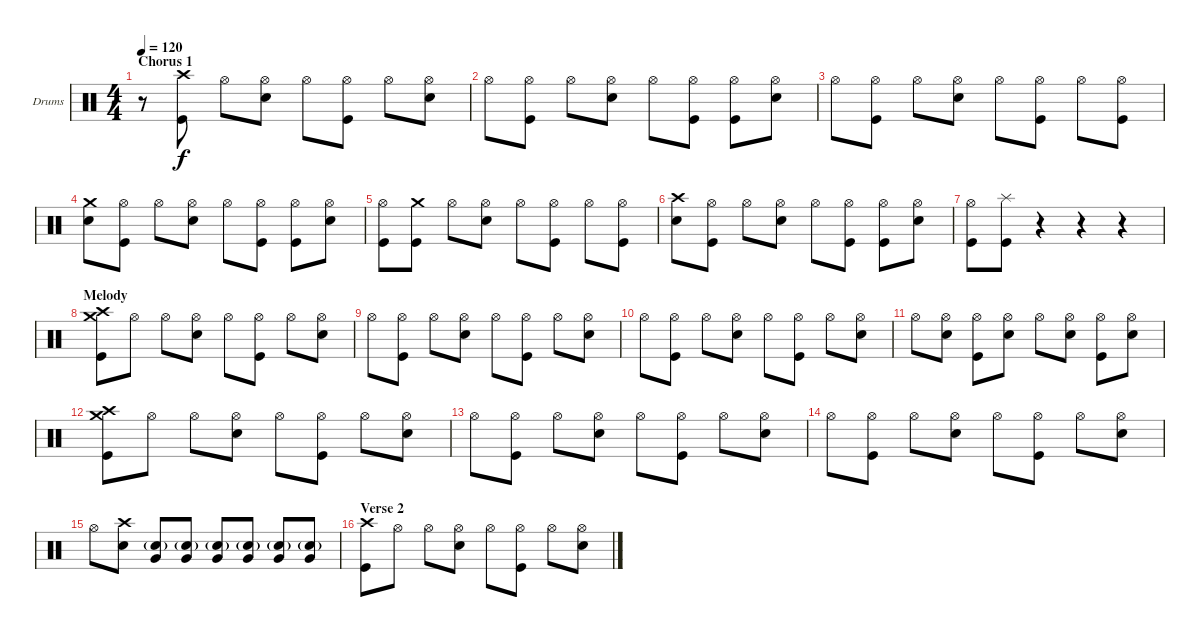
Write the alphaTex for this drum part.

\bracketExtendMode groupsimilarinstruments
\firstSystemTrackNameOrientation horizontal
\otherSystemsTrackNameOrientation horizontal
\track ("Drumkit" "Drums") {instrument percussion}
\staff {score}
\articulation defaults
\ts (4 4)
\section ("" "Chorus 1")
\tempo 120
\clef neutral
\ks c
r.8{dy f} ("Crash high (hit)" "Kick (hit)").8 "Hi-Hat (open)".8 ("Hi-Hat (open)" "Snare (hit) 2").8 "Hi-Hat (open)".8 ("Hi-Hat (open)" "Kick (hit)").8 "Hi-Hat (open)".8 ("Hi-Hat (open)" "Snare (hit) 2").8 |
"Hi-Hat (open)".8 ("Hi-Hat (open)" "Kick (hit)").8 "Hi-Hat (open)".8 ("Hi-Hat (open)" "Snare (hit) 2").8 "Hi-Hat (open)".8 ("Hi-Hat (open)" "Kick (hit)").8 ("Hi-Hat (open)" "Kick (hit)").8 ("Hi-Hat (open)" "Snare (hit) 2").8 |
"Hi-Hat (open)".8 ("Hi-Hat (open)" "Kick (hit)").8 "Hi-Hat (open)".8 ("Hi-Hat (open)" "Snare (hit) 2").8 "Hi-Hat (open)".8 ("Hi-Hat (open)" "Kick (hit)").8 "Hi-Hat (open)".8 ("Hi-Hat (open)" "Kick (hit)").8 |
("Crash medium (hit)" "Snare (hit) 2").8 ("Hi-Hat (open)" "Kick (hit)").8 "Hi-Hat (open)".8 ("Hi-Hat (open)" "Snare (hit) 2").8 "Hi-Hat (open)".8 ("Hi-Hat (open)" "Kick (hit)").8 ("Hi-Hat (open)" "Kick (hit)").8 ("Hi-Hat (open)" "Snare (hit) 2").8 |
("Hi-Hat (open)" "Kick (hit)").8 ("Crash medium (hit)" "Kick (hit)").8 "Hi-Hat (open)".8 ("Hi-Hat (open)" "Snare (hit) 2").8 "Hi-Hat (open)".8 ("Hi-Hat (open)" "Kick (hit)").8 "Hi-Hat (open)".8 ("Hi-Hat (open)" "Kick (hit)").8 |
("Crash high (hit)" "Snare (hit) 2").8 ("Hi-Hat (open)" "Kick (hit)").8 "Hi-Hat (open)".8 ("Hi-Hat (open)" "Snare (hit) 2").8 "Hi-Hat (open)".8 ("Hi-Hat (open)" "Kick (hit)").8 ("Hi-Hat (open)" "Kick (hit)").8 ("Hi-Hat (open)" "Snare (hit) 2").8 |
("Hi-Hat (open)" "Kick (hit)").8 ("Splash (hit)" "Kick (hit)").8 r.4 r.4 r.4 |
\section ("" "Melody")
("Crash high (hit)" "Crash medium (hit)" "Kick (hit)").8 "Hi-Hat (open)".8 "Hi-Hat (open)".8 ("Hi-Hat (open)" "Snare (hit) 2").8 "Hi-Hat (open)".8 ("Hi-Hat (open)" "Kick (hit)").8 "Hi-Hat (open)".8 ("Hi-Hat (open)" "Snare (hit) 2").8 |
"Hi-Hat (open)".8 ("Hi-Hat (open)" "Kick (hit)").8 "Hi-Hat (open)".8 ("Hi-Hat (open)" "Snare (hit) 2").8 "Hi-Hat (open)".8 ("Hi-Hat (open)" "Kick (hit)").8 "Hi-Hat (open)".8 ("Hi-Hat (open)" "Snare (hit) 2").8 |
"Hi-Hat (open)".8 ("Hi-Hat (open)" "Kick (hit)").8 "Hi-Hat (open)".8 ("Hi-Hat (open)" "Snare (hit) 2").8 "Hi-Hat (open)".8 ("Hi-Hat (open)" "Kick (hit)").8 "Hi-Hat (open)".8 ("Hi-Hat (open)" "Snare (hit) 2").8 |
"Hi-Hat (open)".8 ("Hi-Hat (open)" "Snare (hit) 2").8 ("Hi-Hat (open)" "Kick (hit)").8 ("Hi-Hat (open)" "Snare (hit) 2").8 "Hi-Hat (open)".8 ("Hi-Hat (open)" "Snare (hit) 2").8 ("Hi-Hat (open)" "Kick (hit)").8 ("Hi-Hat (open)" "Snare (hit) 2").8 |
("Crash high (hit)" "Crash medium (hit)" "Kick (hit)").8 "Hi-Hat (open)".8 "Hi-Hat (open)".8 ("Hi-Hat (open)" "Snare (hit) 2").8 "Hi-Hat (open)".8 ("Hi-Hat (open)" "Kick (hit)").8 "Hi-Hat (open)".8 ("Hi-Hat (open)" "Snare (hit) 2").8 |
"Hi-Hat (open)".8 ("Hi-Hat (open)" "Kick (hit)").8 "Hi-Hat (open)".8 ("Hi-Hat (open)" "Snare (hit) 2").8 "Hi-Hat (open)".8 ("Hi-Hat (open)" "Kick (hit)").8 "Hi-Hat (open)".8 ("Hi-Hat (open)" "Snare (hit) 2").8 |
"Hi-Hat (open)".8 ("Hi-Hat (open)" "Kick (hit)").8 "Hi-Hat (open)".8 ("Hi-Hat (open)" "Snare (hit) 2").8 "Hi-Hat (open)".8 ("Hi-Hat (open)" "Kick (hit)").8 "Hi-Hat (open)".8 ("Hi-Hat (open)" "Snare (hit) 2").8 |
"Hi-Hat (open)".8 ("Crash high (hit)" "Snare (hit) 2").8 ("Very Low Tom (hit)" "Snare (hit) 2"{g}).8 ("Very Low Tom (hit)" "Snare (hit) 2"{g}).8 ("Very Low Tom (hit)" "Snare (hit) 2"{g}).8 ("Very Low Tom (hit)" "Snare (hit) 2"{g}).8 ("Very Low Tom (hit)" "Snare (hit) 2"{g}).8 ("Very Low Tom (hit)" "Snare (hit) 2"{g}).8 |
\section ("" "Verse 2")
("Crash high (hit)" "Kick (hit)").8 "Hi-Hat (open)".8 "Hi-Hat (open)".8 ("Hi-Hat (open)" "Snare (hit) 2").8 "Hi-Hat (open)".8 ("Hi-Hat (open)" "Kick (hit)").8 "Hi-Hat (open)".8 ("Hi-Hat (open)" "Snare (hit) 2").8
